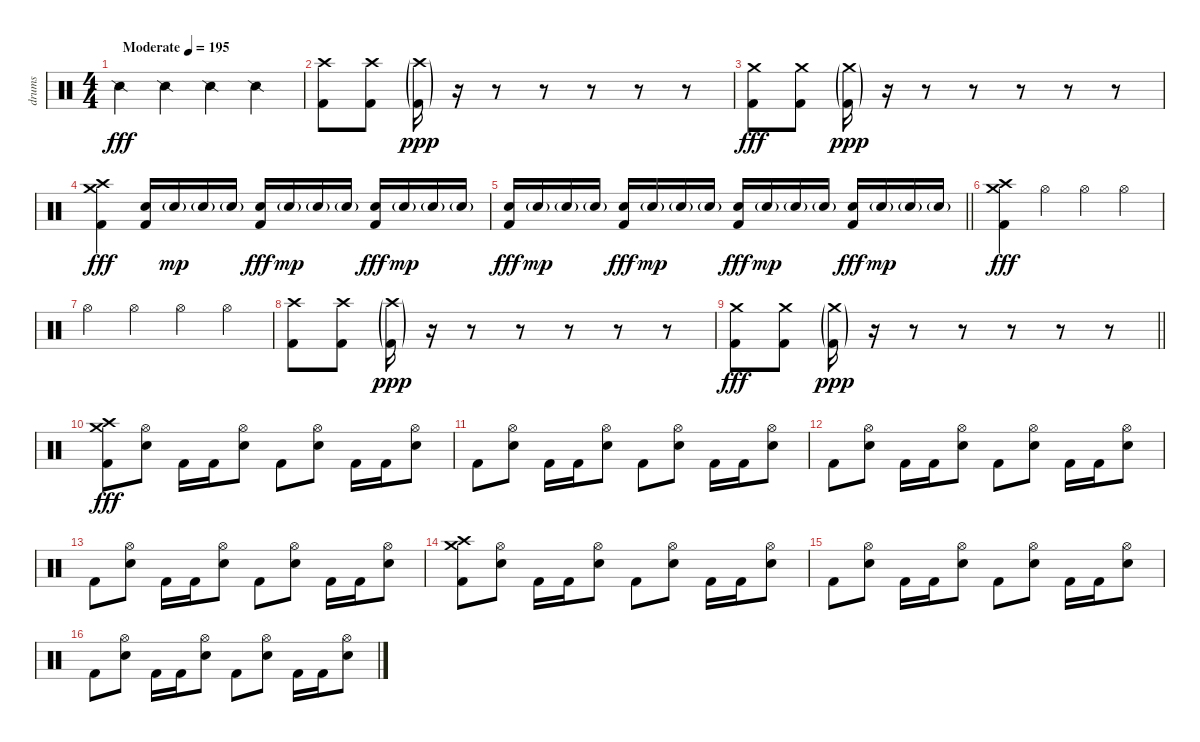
\track ("drums" "drums") {instrument percussion}
\staff {score}
\articulation defaults
\ts (4 4)
\tempo (195 "Moderate")
\clef neutral
\ks c "Snare (side stick) 2".4{dy fff} "Snare (side stick) 2".4 "Snare (side stick) 2".4 "Snare (side stick) 2".4
|
("Crash high (hit)" "Kick (hit) 2").8 ("Crash high (hit)" "Kick (hit) 2").8 ("Crash high (hit)"{g} "Kick (hit) 2"{g}).16{dy ppp} r.16 r.8 r.8 r.8 r.8 r.8 |
("Crash medium (hit)" "Kick (hit) 2").8{dy fff} ("Crash medium (hit)" "Kick (hit) 2").8 ("Crash medium (hit)"{g} "Kick (hit) 2"{g}).16{dy ppp} r.16 r.8 r.8 r.8 r.8 r.8 |
("Crash high (hit)" "Crash medium (hit)" "Kick (hit) 2").4{dy fff} ("Electric Snare (hit)" "Kick (hit) 2").16 "Electric Snare (hit)"{g}.16{dy mp} "Electric Snare (hit)"{g}.16 "Electric Snare (hit)"{g}.16 ("Electric Snare (hit)" "Kick (hit) 2").16{dy fff} "Electric Snare (hit)"{g}.16{dy mp} "Electric Snare (hit)"{g}.16 "Electric Snare (hit)"{g}.16 ("Electric Snare (hit)" "Kick (hit) 2").16{dy fff} "Electric Snare (hit)"{g}.16{dy mp} "Electric Snare (hit)"{g}.16 "Electric Snare (hit)"{g}.16 |
\barLineRight lightlight
("Electric Snare (hit)" "Kick (hit) 2").16{dy fff} "Electric Snare (hit)"{g}.16{dy mp} "Electric Snare (hit)"{g}.16 "Electric Snare (hit)"{g}.16 ("Electric Snare (hit)" "Kick (hit) 2").16{dy fff} "Electric Snare (hit)"{g}.16{dy mp} "Electric Snare (hit)"{g}.16 "Electric Snare (hit)"{g}.16 ("Electric Snare (hit)" "Kick (hit) 2").16{dy fff} "Electric Snare (hit)"{g}.16{dy mp} "Electric Snare (hit)"{g}.16 "Electric Snare (hit)"{g}.16 ("Electric Snare (hit)" "Kick (hit) 2").16{dy fff} "Electric Snare (hit)"{g}.16{dy mp} "Electric Snare (hit)"{g}.16 "Electric Snare (hit)"{g}.16 |
\section ("" "")
("Crash high (hit)" "Crash medium (hit)" "Kick (hit) 2").4{dy fff} "Hi-Hat (open)".4 "Hi-Hat (open)".4 "Hi-Hat (open)".4 |
"Hi-Hat (open)".4 "Hi-Hat (open)".4 "Hi-Hat (open)".4 "Hi-Hat (open)".4 |
("Crash high (hit)" "Kick (hit) 2").8 ("Crash high (hit)" "Kick (hit) 2").8 ("Crash high (hit)"{g} "Kick (hit) 2"{g}).16{dy ppp} r.16 r.8 r.8 r.8 r.8 r.8 |
\barLineRight lightlight
("Crash medium (hit)" "Kick (hit) 2").8{dy fff} ("Crash medium (hit)" "Kick (hit) 2").8 ("Crash medium (hit)"{g} "Kick (hit) 2"{g}).16{dy ppp} r.16 r.8 r.8 r.8 r.8 r.8 |
\section ("" "")
("Crash high (hit)" "Crash medium (hit)" "Kick (hit) 2").8{dy fff} ("Hi-Hat (open)" "Electric Snare (hit)").8 "Kick (hit) 2".16 "Kick (hit) 2".16 ("Hi-Hat (open)" "Electric Snare (hit)").8 "Kick (hit) 2".8 ("Hi-Hat (open)" "Electric Snare (hit)").8 "Kick (hit) 2".16 "Kick (hit) 2".16 ("Hi-Hat (open)" "Electric Snare (hit)").8 |
"Kick (hit) 2".8 ("Hi-Hat (open)" "Electric Snare (hit)").8 "Kick (hit) 2".16 "Kick (hit) 2".16 ("Hi-Hat (open)" "Electric Snare (hit)").8 "Kick (hit) 2".8 ("Hi-Hat (open)" "Electric Snare (hit)").8 "Kick (hit) 2".16 "Kick (hit) 2".16 ("Hi-Hat (open)" "Electric Snare (hit)").8 |
"Kick (hit) 2".8 ("Hi-Hat (open)" "Electric Snare (hit)").8 "Kick (hit) 2".16 "Kick (hit) 2".16 ("Hi-Hat (open)" "Electric Snare (hit)").8 "Kick (hit) 2".8 ("Hi-Hat (open)" "Electric Snare (hit)").8 "Kick (hit) 2".16 "Kick (hit) 2".16 ("Hi-Hat (open)" "Electric Snare (hit)").8 |
"Kick (hit) 2".8 ("Hi-Hat (open)" "Electric Snare (hit)").8 "Kick (hit) 2".16 "Kick (hit) 2".16 ("Hi-Hat (open)" "Electric Snare (hit)").8 "Kick (hit) 2".8 ("Hi-Hat (open)" "Electric Snare (hit)").8 "Kick (hit) 2".16 "Kick (hit) 2".16 ("Hi-Hat (open)" "Electric Snare (hit)").8 |
("Crash high (hit)" "Crash medium (hit)" "Kick (hit) 2").8 ("Hi-Hat (open)" "Electric Snare (hit)").8 "Kick (hit) 2".16 "Kick (hit) 2".16 ("Hi-Hat (open)" "Electric Snare (hit)").8 "Kick (hit) 2".8 ("Hi-Hat (open)" "Electric Snare (hit)").8 "Kick (hit) 2".16 "Kick (hit) 2".16 ("Hi-Hat (open)" "Electric Snare (hit)").8 |
"Kick (hit) 2".8 ("Hi-Hat (open)" "Electric Snare (hit)").8 "Kick (hit) 2".16 "Kick (hit) 2".16 ("Hi-Hat (open)" "Electric Snare (hit)").8 "Kick (hit) 2".8 ("Hi-Hat (open)" "Electric Snare (hit)").8 "Kick (hit) 2".16 "Kick (hit) 2".16 ("Hi-Hat (open)" "Electric Snare (hit)").8 |
"Kick (hit) 2".8 ("Hi-Hat (open)" "Electric Snare (hit)").8 "Kick (hit) 2".16 "Kick (hit) 2".16 ("Hi-Hat (open)" "Electric Snare (hit)").8 "Kick (hit) 2".8 ("Hi-Hat (open)" "Electric Snare (hit)").8 "Kick (hit) 2".16 "Kick (hit) 2".16 ("Hi-Hat (open)" "Electric Snare (hit)").8
